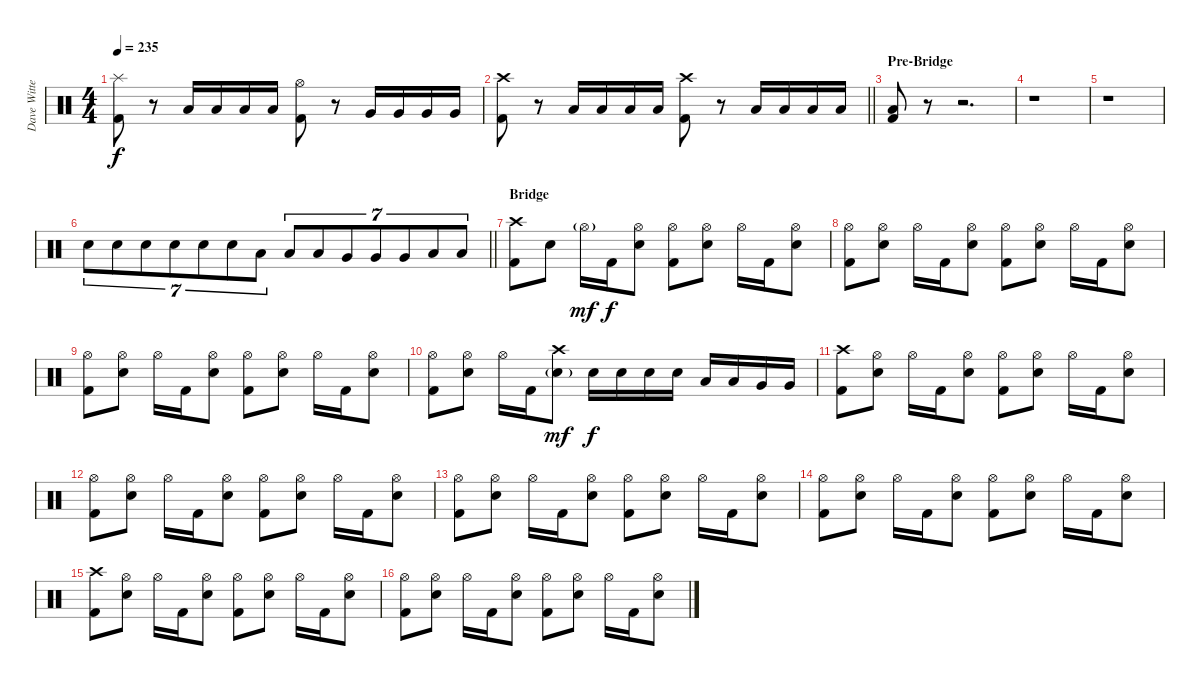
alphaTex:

\track ("Dave Witte" "Dave Witte") {instrument percussion}
\staff {score}
\articulation defaults
\ts (4 4)
\tempo 235
\clef neutral
\ks c
("Splash (hit)" "Kick (hit) 2").8{dy f} r.8 "Low Tom (hit)".16 "Low Tom (hit)".16 "Low Tom (hit)".16 "Low Tom (hit)".16 ("Hi-Hat (open)" "Kick (hit) 2").8 r.8 "Very Low Tom (hit)".16 "Very Low Tom (hit)".16 "Very Low Tom (hit)".16 "Very Low Tom (hit)".16 |
\barLineRight lightlight
("Crash high (hit)" "Kick (hit) 2").8 r.8 "Low Floor Tom (hit)".16 "Low Floor Tom (hit)".16 "Low Floor Tom (hit)".16 "Low Floor Tom (hit)".16 ("Crash high (hit)" "Kick (hit) 2").8 r.8 "Low Floor Tom (hit)".16 "Low Floor Tom (hit)".16 "Low Floor Tom (hit)".16 "Low Floor Tom (hit)".16 |
\section ("" "Pre-Bridge")
("Low Floor Tom (hit)" "Kick (hit) 2").8 r.8{volume 0} r.2{d} |
r.1 |
r.1 |
\barLineRight lightlight "Electric Snare (hit)".8{tu (7 4) volume 14} "Electric Snare (hit)".8{tu (7 4)} "Electric Snare (hit)".8{tu (7 4)} "Electric Snare (hit)".8{tu (7 4)} "Electric Snare (hit)".8{tu (7 4)} "Electric Snare (hit)".8{tu (7 4)} "Low Tom (hit)".8{tu (7 4)} "Low Tom (hit)".8{tu (7 4)} "Low Tom (hit)".8{tu (7 4)} "Very Low Tom (hit)".8{tu (7 4)} "Very Low Tom (hit)".8{tu (7 4)} "Very Low Tom (hit)".8{tu (7 4)} "Low Floor Tom (hit)".8{tu (7 4)} "Low Floor Tom (hit)".8{tu (7 4)}
|
\section ("" "Bridge")
("Crash high (hit)" "Kick (hit) 2").8 "Electric Snare (hit)".8 "Hi-Hat (open)"{g}.16{dy mf} "Kick (hit) 2".16{dy f} ("Hi-Hat (open)" "Electric Snare (hit)").8 ("Hi-Hat (open)" "Kick (hit) 2").8 ("Hi-Hat (open)" "Electric Snare (hit)").8 "Hi-Hat (open)".16 "Kick (hit) 2".16 ("Hi-Hat (open)" "Electric Snare (hit)").8 |
("Hi-Hat (open)" "Kick (hit) 2").8 ("Hi-Hat (open)" "Electric Snare (hit)").8 "Hi-Hat (open)".16 "Kick (hit) 2".16 ("Hi-Hat (open)" "Electric Snare (hit)").8 ("Hi-Hat (open)" "Kick (hit) 2").8 ("Hi-Hat (open)" "Electric Snare (hit)").8 "Hi-Hat (open)".16 "Kick (hit) 2".16 ("Hi-Hat (open)" "Electric Snare (hit)").8 |
("Hi-Hat (open)" "Kick (hit) 2").8 ("Hi-Hat (open)" "Electric Snare (hit)").8 "Hi-Hat (open)".16 "Kick (hit) 2".16 ("Hi-Hat (open)" "Electric Snare (hit)").8 ("Hi-Hat (open)" "Kick (hit) 2").8 ("Hi-Hat (open)" "Electric Snare (hit)").8 "Hi-Hat (open)".16 "Kick (hit) 2".16 ("Hi-Hat (open)" "Electric Snare (hit)").8 |
("Hi-Hat (open)" "Kick (hit) 2").8 ("Hi-Hat (open)" "Electric Snare (hit)").8 "Hi-Hat (open)".16 "Kick (hit) 2".16 ("Crash high (hit)" "Electric Snare (hit)"{g}).8{dy mf} "Electric Snare (hit)".16{dy f} "Electric Snare (hit)".16 "Electric Snare (hit)".16 "Electric Snare (hit)".16 "Low Tom (hit)".16 "Low Tom (hit)".16 "Very Low Tom (hit)".16 "Very Low Tom (hit)".16 |
("Crash high (hit)" "Kick (hit) 2").8 ("Hi-Hat (open)" "Electric Snare (hit)").8 "Hi-Hat (open)".16 "Kick (hit) 2".16 ("Hi-Hat (open)" "Electric Snare (hit)").8 ("Hi-Hat (open)" "Kick (hit) 2").8 ("Hi-Hat (open)" "Electric Snare (hit)").8 "Hi-Hat (open)".16 "Kick (hit) 2".16 ("Hi-Hat (open)" "Electric Snare (hit)").8 |
("Hi-Hat (open)" "Kick (hit) 2").8 ("Hi-Hat (open)" "Electric Snare (hit)").8 "Hi-Hat (open)".16 "Kick (hit) 2".16 ("Hi-Hat (open)" "Electric Snare (hit)").8 ("Hi-Hat (open)" "Kick (hit) 2").8 ("Hi-Hat (open)" "Electric Snare (hit)").8 "Hi-Hat (open)".16 "Kick (hit) 2".16 ("Hi-Hat (open)" "Electric Snare (hit)").8 |
("Hi-Hat (open)" "Kick (hit) 2").8 ("Hi-Hat (open)" "Electric Snare (hit)").8 "Hi-Hat (open)".16 "Kick (hit) 2".16 ("Hi-Hat (open)" "Electric Snare (hit)").8 ("Hi-Hat (open)" "Kick (hit) 2").8 ("Hi-Hat (open)" "Electric Snare (hit)").8 "Hi-Hat (open)".16 "Kick (hit) 2".16 ("Hi-Hat (open)" "Electric Snare (hit)").8 |
("Hi-Hat (open)" "Kick (hit) 2").8 ("Hi-Hat (open)" "Electric Snare (hit)").8 "Hi-Hat (open)".16 "Kick (hit) 2".16 ("Hi-Hat (open)" "Electric Snare (hit)").8 ("Hi-Hat (open)" "Kick (hit) 2").8 ("Hi-Hat (open)" "Electric Snare (hit)").8 "Hi-Hat (open)".16 "Kick (hit) 2".16 ("Hi-Hat (open)" "Electric Snare (hit)").8 |
("Crash high (hit)" "Kick (hit) 2").8 ("Hi-Hat (open)" "Electric Snare (hit)").8 "Hi-Hat (open)".16 "Kick (hit) 2".16 ("Hi-Hat (open)" "Electric Snare (hit)").8 ("Hi-Hat (open)" "Kick (hit) 2").8 ("Hi-Hat (open)" "Electric Snare (hit)").8 "Hi-Hat (open)".16 "Kick (hit) 2".16 ("Hi-Hat (open)" "Electric Snare (hit)").8 |
("Hi-Hat (open)" "Kick (hit) 2").8 ("Hi-Hat (open)" "Electric Snare (hit)").8 "Hi-Hat (open)".16 "Kick (hit) 2".16 ("Hi-Hat (open)" "Electric Snare (hit)").8 ("Hi-Hat (open)" "Kick (hit) 2").8 ("Hi-Hat (open)" "Electric Snare (hit)").8 "Hi-Hat (open)".16 "Kick (hit) 2".16 ("Hi-Hat (open)" "Electric Snare (hit)").8
